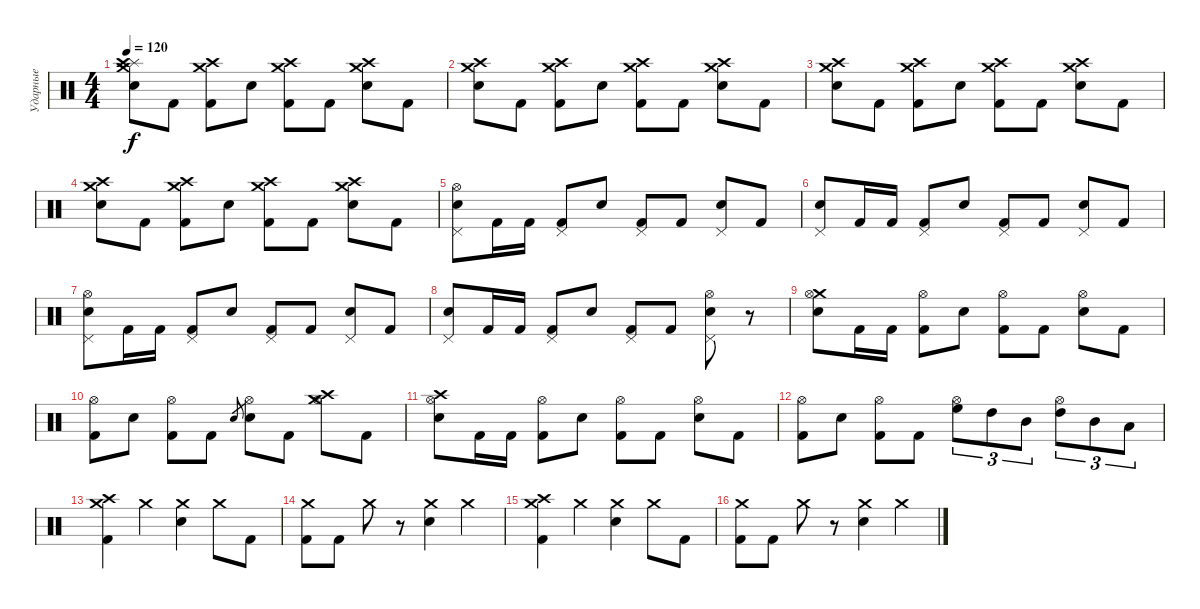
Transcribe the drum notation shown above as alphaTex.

\track ("Ударные" "Ударные") {instrument percussion}
\staff {score}
\articulation defaults
\ts (4 4)
\tempo 120
\clef neutral
\ks c
("Electric Snare (hit)" "Splash (hit)" "Crash medium (hit)" "Crash high (hit)").8{dy f} "Kick (hit) 2".8 ("Kick (hit) 2" "Crash medium (hit)" "Crash high (hit)").8 "Electric Snare (hit)".8 ("Kick (hit) 2" "Crash medium (hit)" "Crash high (hit)").8 "Kick (hit) 2".8 ("Electric Snare (hit)" "Crash medium (hit)" "Crash high (hit)").8 "Kick (hit) 2".8 |
("Electric Snare (hit)" "Crash medium (hit)" "Crash high (hit)").8 "Kick (hit) 2".8 ("Kick (hit) 2" "Crash medium (hit)" "Crash high (hit)").8 "Electric Snare (hit)".8 ("Kick (hit) 2" "Crash medium (hit)" "Crash high (hit)").8 "Kick (hit) 2".8 ("Electric Snare (hit)" "Crash medium (hit)" "Crash high (hit)").8 "Kick (hit) 2".8 |
("Electric Snare (hit)" "Crash medium (hit)" "Crash high (hit)").8 "Kick (hit) 2".8 ("Kick (hit) 2" "Crash medium (hit)" "Crash high (hit)").8 "Electric Snare (hit)".8 ("Kick (hit) 2" "Crash medium (hit)" "Crash high (hit)").8 "Kick (hit) 2".8 ("Electric Snare (hit)" "Crash medium (hit)" "Crash high (hit)").8 "Kick (hit) 2".8 |
("Electric Snare (hit)" "Crash medium (hit)" "Crash high (hit)").8 "Kick (hit) 2".8 ("Kick (hit) 2" "Crash medium (hit)" "Crash high (hit)").8 "Electric Snare (hit)".8 ("Kick (hit) 2" "Crash medium (hit)" "Crash high (hit)").8 "Kick (hit) 2".8 ("Electric Snare (hit)" "Crash medium (hit)" "Crash high (hit)").8 "Kick (hit) 2".8 |
("Pedal Hi-Hat (hit)" "Hi-Hat (open)" "Electric Snare (hit)").8 "Kick (hit) 2".16 "Kick (hit) 2".16 ("Pedal Hi-Hat (hit)" "Kick (hit) 2").8 "Electric Snare (hit)".8 ("Pedal Hi-Hat (hit)" "Kick (hit) 2").8 "Kick (hit) 2".8 ("Pedal Hi-Hat (hit)" "Electric Snare (hit)").8 "Kick (hit) 2".8 |
("Pedal Hi-Hat (hit)" "Electric Snare (hit)").8 "Kick (hit) 2".16 "Kick (hit) 2".16 ("Pedal Hi-Hat (hit)" "Kick (hit) 2").8 "Electric Snare (hit)".8 ("Pedal Hi-Hat (hit)" "Kick (hit) 2").8 "Kick (hit) 2".8 ("Pedal Hi-Hat (hit)" "Electric Snare (hit)").8 "Kick (hit) 2".8 |
("Pedal Hi-Hat (hit)" "Hi-Hat (open)" "Electric Snare (hit)").8 "Kick (hit) 2".16 "Kick (hit) 2".16 ("Pedal Hi-Hat (hit)" "Kick (hit) 2").8 "Electric Snare (hit)".8 ("Pedal Hi-Hat (hit)" "Kick (hit) 2").8 "Kick (hit) 2".8 ("Pedal Hi-Hat (hit)" "Electric Snare (hit)").8 "Kick (hit) 2".8 |
("Pedal Hi-Hat (hit)" "Electric Snare (hit)").8 "Kick (hit) 2".16 "Kick (hit) 2".16 ("Pedal Hi-Hat (hit)" "Kick (hit) 2").8 "Electric Snare (hit)".8 ("Pedal Hi-Hat (hit)" "Kick (hit) 2").8 "Kick (hit) 2".8 ("Pedal Hi-Hat (hit)" "Hi-Hat (open)" "Electric Snare (hit)").8 r.8 |
("Crash medium (hit)" "Hi-Hat (open)" "Electric Snare (hit)").8 "Kick (hit) 2".16 "Kick (hit) 2".16 ("Hi-Hat (open)" "Kick (hit) 2").8 "Electric Snare (hit)".8 ("Hi-Hat (open)" "Kick (hit) 2").8 "Kick (hit) 2".8 ("Hi-Hat (open)" "Electric Snare (hit)").8 "Kick (hit) 2".8 |
("Hi-Hat (open)" "Kick (hit) 2").8 "Electric Snare (hit)".8 ("Hi-Hat (open)" "Kick (hit) 2").8 "Kick (hit) 2".8 "Electric Snare (hit)".8{gr} ("Hi-Hat (open)" "Electric Snare (hit)").8 "Kick (hit) 2".8 ("Hi-Hat (open)" "Crash medium (hit)" "Crash high (hit)").8 "Kick (hit) 2".8 |
("Crash high (hit)" "Hi-Hat (open)" "Electric Snare (hit)").8 "Kick (hit) 2".16 "Kick (hit) 2".16 ("Hi-Hat (open)" "Kick (hit) 2").8 "Electric Snare (hit)".8 ("Hi-Hat (open)" "Kick (hit) 2").8 "Kick (hit) 2".8 ("Hi-Hat (open)" "Electric Snare (hit)").8 "Kick (hit) 2".8 |
("Hi-Hat (open)" "Kick (hit) 2").8 "Electric Snare (hit)".8 ("Hi-Hat (open)" "Kick (hit) 2").8 "Kick (hit) 2".8 ("Hi-Hat (open)" "High Floor Tom (hit)").8{tu (3 2)} "High Tom (hit)".8{tu (3 2)} "Mid Tom (hit)".8{tu (3 2)} ("Hi-Hat (open)" "High Tom (hit)").8{tu (3 2)} "Mid Tom (hit)".8{tu (3 2)} "Low Tom (hit)".8{tu (3 2)} |
("Crash medium (hit)" "Crash high (hit)" "Kick (hit) 2").4 "Crash medium (hit)".4 ("Crash medium (hit)" "Electric Snare (hit)").4 "Crash medium (hit)".8 "Kick (hit) 2".8 |
("Crash medium (hit)" "Kick (hit) 2").8 "Kick (hit) 2".8 "Crash medium (hit)".8 r.8 ("Crash medium (hit)" "Electric Snare (hit)").4 "Crash medium (hit)".4 |
("Crash medium (hit)" "Crash high (hit)" "Kick (hit) 2").4 "Crash medium (hit)".4 ("Crash medium (hit)" "Electric Snare (hit)").4 "Crash medium (hit)".8 "Kick (hit) 2".8 |
("Crash medium (hit)" "Kick (hit) 2").8 "Kick (hit) 2".8 "Crash medium (hit)".8 r.8 ("Crash medium (hit)" "Electric Snare (hit)").4 "Crash medium (hit)".4
